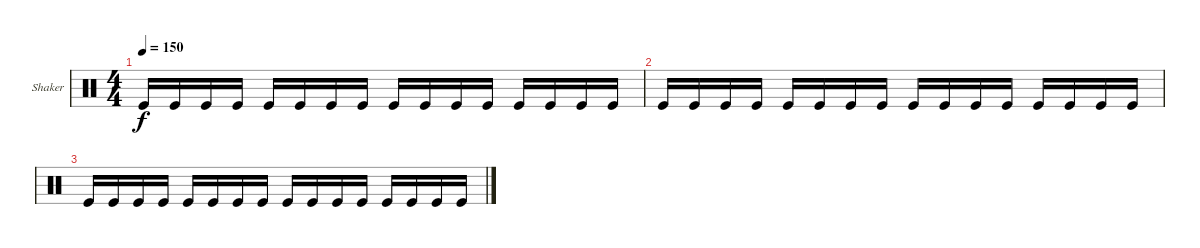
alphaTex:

\bracketExtendMode groupsimilarinstruments
\firstSystemTrackNameOrientation horizontal
\otherSystemsTrackNameOrientation horizontal
\track ("Shaker" "Shaker") {instrument percussion}
\staff {score}
\articulation defaults
\ts (4 4)
\tempo 150
\clef neutral
\ks c "Kick (hit)".16{dy f} "Kick (hit)".16 "Kick (hit)".16 "Kick (hit)".16 "Kick (hit)".16 "Kick (hit)".16 "Kick (hit)".16 "Kick (hit)".16 "Kick (hit)".16 "Kick (hit)".16 "Kick (hit)".16 "Kick (hit)".16 "Kick (hit)".16 "Kick (hit)".16 "Kick (hit)".16 "Kick (hit)".16
|
"Kick (hit)".16 "Kick (hit)".16 "Kick (hit)".16 "Kick (hit)".16 "Kick (hit)".16 "Kick (hit)".16 "Kick (hit)".16 "Kick (hit)".16 "Kick (hit)".16 "Kick (hit)".16 "Kick (hit)".16 "Kick (hit)".16 "Kick (hit)".16 "Kick (hit)".16 "Kick (hit)".16 "Kick (hit)".16 |
"Kick (hit)".16 "Kick (hit)".16 "Kick (hit)".16 "Kick (hit)".16 "Kick (hit)".16 "Kick (hit)".16 "Kick (hit)".16 "Kick (hit)".16 "Kick (hit)".16 "Kick (hit)".16 "Kick (hit)".16 "Kick (hit)".16 "Kick (hit)".16 "Kick (hit)".16 "Kick (hit)".16 "Kick (hit)".16
